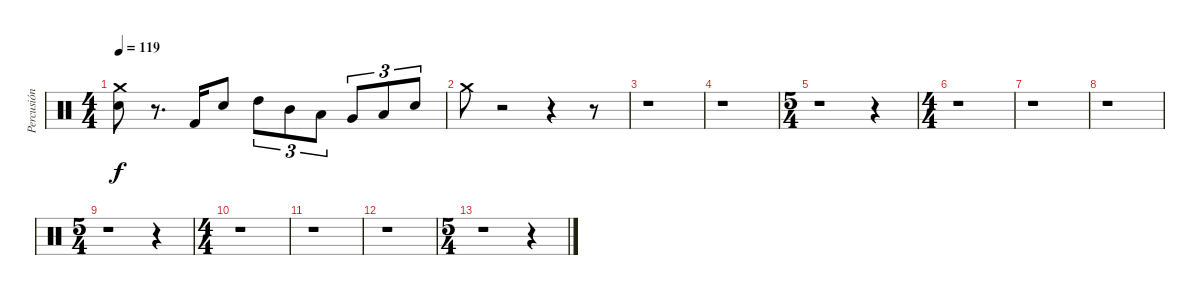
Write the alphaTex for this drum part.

\track ("Percusión" "Percusión") {instrument percussion}
\staff {score}
\articulation defaults
\ts (4 4)
\tempo 119
\clef neutral
\ks c
("Crash medium (hit)" "Electric Snare (hit)").8{dy f} r.8{d} "Kick (hit) 2".16 "Electric Snare (hit)".8 "High Tom (hit)".8{tu (3 2)} "Mid Tom (hit)".8{tu (3 2)} "Low Tom (hit)".8{tu (3 2)} "Very Low Tom (hit)".8{tu (3 2)} "Low Floor Tom (hit)".8{tu (3 2)} "Electric Snare (hit)".8{tu (3 2)} |
"Crash medium (hit)".8 r.2 r.4 r.8 |
r.1 |
r.1 |
\ts (5 4)
r.1 r.4 |
\ts (4 4)
r.1 |
r.1 |
r.1 |
\ts (5 4)
r.1 r.4 |
\ts (4 4)
r.1 |
r.1 |
r.1 |
\ts (5 4)
r.1 r.4
